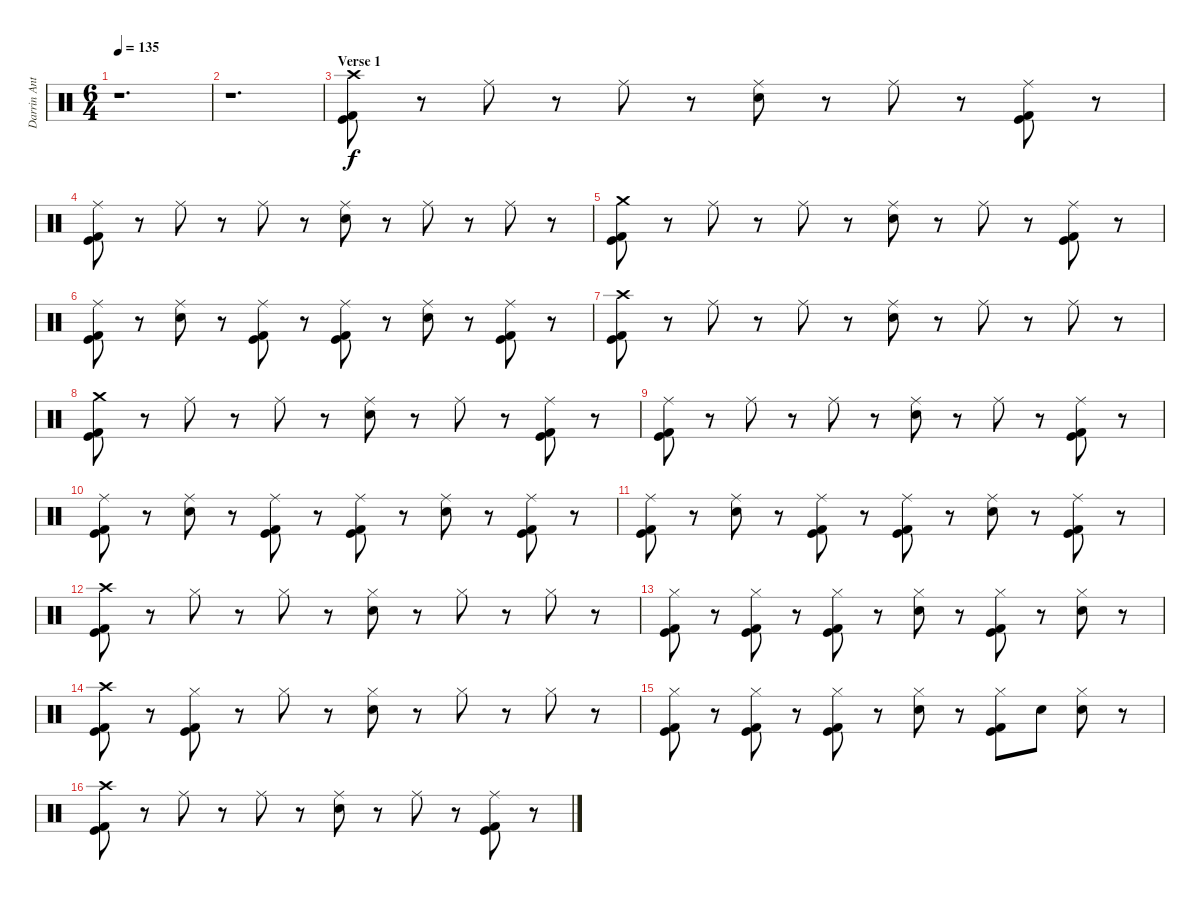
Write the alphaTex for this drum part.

\track ("Darrin Anthony" "Darrin Ant") {instrument percussion}
\staff {score}
\articulation defaults
\ts (6 4)
\tempo 135
\clef neutral
\ks c
r.1{d dy f} |
r.1{d} |
\section ("" "Verse 1")
("Crash high (hit)" "Kick (hit)" "Kick (hit) 2").8 r.8 "Ride (middle)".8 r.8 "Ride (middle)".8 r.8 ("Ride (middle)" "Electric Snare (hit)").8 r.8 "Ride (middle)".8 r.8 ("Ride (middle)" "Kick (hit)" "Kick (hit) 2").8 r.8 |
("Ride (middle)" "Kick (hit)" "Kick (hit) 2").8 r.8 "Ride (middle)".8 r.8 "Ride (middle)".8 r.8 ("Ride (middle)" "Electric Snare (hit)").8 r.8 "Ride (middle)".8 r.8 "Ride (middle)".8 r.8 |
("Crash medium (hit)" "Kick (hit)" "Kick (hit) 2").8 r.8 "Ride (middle)".8 r.8 "Ride (middle)".8 r.8 ("Ride (middle)" "Electric Snare (hit)").8 r.8 "Ride (middle)".8 r.8 ("Ride (middle)" "Kick (hit)" "Kick (hit) 2").8 r.8 |
("Ride (middle)" "Kick (hit)" "Kick (hit) 2").8 r.8 ("Ride (middle)" "Electric Snare (hit)").8 r.8 ("Ride (middle)" "Kick (hit)" "Kick (hit) 2").8 r.8 ("Ride (middle)" "Kick (hit)" "Kick (hit) 2").8 r.8 ("Ride (middle)" "Electric Snare (hit)").8 r.8 ("Ride (middle)" "Kick (hit)" "Kick (hit) 2").8 r.8 |
("Crash high (hit)" "Kick (hit)" "Kick (hit) 2").8 r.8 "Ride (middle)".8 r.8 "Ride (middle)".8 r.8 ("Ride (middle)" "Electric Snare (hit)").8 r.8 "Ride (middle)".8 r.8 "Ride (middle)".8 r.8 |
("Crash medium (hit)" "Kick (hit)" "Kick (hit) 2").8 r.8 "Ride (middle)".8 r.8 "Ride (middle)".8 r.8 ("Ride (middle)" "Electric Snare (hit)").8 r.8 "Ride (middle)".8 r.8 ("Ride (middle)" "Kick (hit)" "Kick (hit) 2").8 r.8 |
("Ride (middle)" "Kick (hit)" "Kick (hit) 2").8 r.8 "Ride (middle)".8 r.8 "Ride (middle)".8 r.8 ("Ride (middle)" "Electric Snare (hit)").8 r.8 "Ride (middle)".8 r.8 ("Ride (middle)" "Kick (hit)" "Kick (hit) 2").8 r.8 |
("Ride (middle)" "Kick (hit)" "Kick (hit) 2").8 r.8 ("Ride (middle)" "Electric Snare (hit)").8 r.8 ("Ride (middle)" "Kick (hit)" "Kick (hit) 2").8 r.8 ("Ride (middle)" "Kick (hit)" "Kick (hit) 2").8 r.8 ("Ride (middle)" "Electric Snare (hit)").8 r.8 ("Ride (middle)" "Kick (hit)" "Kick (hit) 2").8 r.8 |
("Ride (middle)" "Kick (hit)" "Kick (hit) 2").8 r.8 ("Ride (middle)" "Electric Snare (hit)").8 r.8 ("Ride (middle)" "Kick (hit)" "Kick (hit) 2").8 r.8 ("Ride (middle)" "Kick (hit)" "Kick (hit) 2").8 r.8 ("Ride (middle)" "Electric Snare (hit)").8 r.8 ("Ride (middle)" "Kick (hit)" "Kick (hit) 2").8 r.8 |
("Crash high (hit)" "Kick (hit)" "Kick (hit) 2").8 r.8 "Hi-Hat (closed)".8 r.8 "Hi-Hat (closed)".8 r.8 ("Hi-Hat (closed)" "Electric Snare (hit)").8 r.8 "Hi-Hat (closed)".8 r.8 "Hi-Hat (closed)".8 r.8 |
("Hi-Hat (closed)" "Kick (hit)" "Kick (hit) 2").8 r.8 ("Hi-Hat (closed)" "Kick (hit)" "Kick (hit) 2").8 r.8 ("Hi-Hat (closed)" "Kick (hit)" "Kick (hit) 2").8 r.8 ("Hi-Hat (closed)" "Electric Snare (hit)").8 r.8 ("Hi-Hat (closed)" "Kick (hit)" "Kick (hit) 2").8 r.8 ("Hi-Hat (closed)" "Electric Snare (hit)").8 r.8 |
("Crash high (hit)" "Kick (hit)" "Kick (hit) 2").8 r.8 ("Hi-Hat (closed)" "Kick (hit)" "Kick (hit) 2").8 r.8 "Hi-Hat (closed)".8 r.8 ("Hi-Hat (closed)" "Electric Snare (hit)").8 r.8 "Hi-Hat (closed)".8 r.8 "Hi-Hat (closed)".8 r.8 |
("Hi-Hat (closed)" "Kick (hit)" "Kick (hit) 2").8 r.8 ("Hi-Hat (closed)" "Kick (hit)" "Kick (hit) 2").8 r.8 ("Hi-Hat (closed)" "Kick (hit)" "Kick (hit) 2").8 r.8 ("Hi-Hat (closed)" "Electric Snare (hit)").8 r.8 ("Hi-Hat (closed)" "Kick (hit)" "Kick (hit) 2").8 "Electric Snare (hit)".8 ("Hi-Hat (closed)" "Electric Snare (hit)").8 r.8 |
("Crash high (hit)" "Kick (hit)" "Kick (hit) 2").8 r.8 "Ride (middle)".8 r.8 "Ride (middle)".8 r.8 ("Ride (middle)" "Electric Snare (hit)").8 r.8 "Ride (middle)".8 r.8 ("Ride (middle)" "Kick (hit)" "Kick (hit) 2").8 r.8
